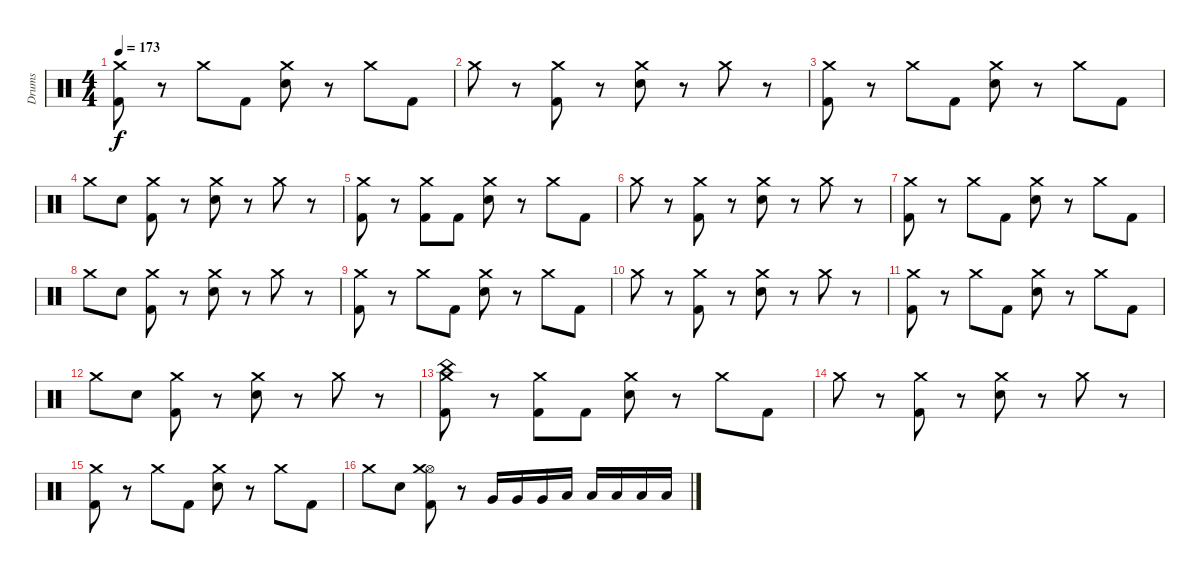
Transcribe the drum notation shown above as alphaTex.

\track ("Drums" "Drums") {instrument percussion}
\staff {score}
\articulation defaults
\ts (4 4)
\tempo 173
\clef neutral
\ks c
("Kick (hit) 2" "Crash medium (hit)").8{dy f} r.8 "Crash medium (hit)".8 "Kick (hit) 2".8 ("Electric Snare (hit)" "Crash medium (hit)").8 r.8 "Crash medium (hit)".8 "Kick (hit) 2".8 |
"Crash medium (hit)".8 r.8 ("Kick (hit) 2" "Crash medium (hit)").8 r.8 ("Electric Snare (hit)" "Crash medium (hit)").8 r.8 "Crash medium (hit)".8 r.8 |
("Kick (hit) 2" "Crash medium (hit)").8 r.8 "Crash medium (hit)".8 "Kick (hit) 2".8 ("Electric Snare (hit)" "Crash medium (hit)").8 r.8 "Crash medium (hit)".8 "Kick (hit) 2".8 |
"Crash medium (hit)".8 "Electric Snare (hit)".8 ("Kick (hit) 2" "Crash medium (hit)").8 r.8 ("Electric Snare (hit)" "Crash medium (hit)").8 r.8 "Crash medium (hit)".8 r.8 |
("Kick (hit) 2" "Crash medium (hit)").8 r.8 ("Kick (hit) 2" "Crash medium (hit)").8 "Kick (hit) 2".8 ("Electric Snare (hit)" "Crash medium (hit)").8 r.8 "Crash medium (hit)".8 "Kick (hit) 2".8 |
"Crash medium (hit)".8 r.8 ("Kick (hit) 2" "Crash medium (hit)").8 r.8 ("Electric Snare (hit)" "Crash medium (hit)").8 r.8 "Crash medium (hit)".8 r.8 |
("Kick (hit) 2" "Crash medium (hit)").8 r.8 "Crash medium (hit)".8 "Kick (hit) 2".8 ("Electric Snare (hit)" "Crash medium (hit)").8 r.8 "Crash medium (hit)".8 "Kick (hit) 2".8 |
"Crash medium (hit)".8 "Electric Snare (hit)".8 ("Kick (hit) 2" "Crash medium (hit)").8 r.8 ("Electric Snare (hit)" "Crash medium (hit)").8 r.8 "Crash medium (hit)".8 r.8 |
("Kick (hit) 2" "Crash medium (hit)").8 r.8 "Crash medium (hit)".8 "Kick (hit) 2".8 ("Electric Snare (hit)" "Crash medium (hit)").8 r.8 "Crash medium (hit)".8 "Kick (hit) 2".8 |
"Crash medium (hit)".8 r.8 ("Kick (hit) 2" "Crash medium (hit)").8 r.8 ("Electric Snare (hit)" "Crash medium (hit)").8 r.8 "Crash medium (hit)".8 r.8 |
("Kick (hit) 2" "Crash medium (hit)").8 r.8 "Crash medium (hit)".8 "Kick (hit) 2".8 ("Electric Snare (hit)" "Crash medium (hit)").8 r.8 "Crash medium (hit)".8 "Kick (hit) 2".8 |
"Crash medium (hit)".8 "Electric Snare (hit)".8 ("Kick (hit) 2" "Crash medium (hit)").8 r.8 ("Electric Snare (hit)" "Crash medium (hit)").8 r.8 "Crash medium (hit)".8 r.8 |
("Kick (hit) 2" "Crash medium (hit)" "China (hit)").8 r.8 ("Kick (hit) 2" "Crash medium (hit)").8 "Kick (hit) 2".8 ("Electric Snare (hit)" "Crash medium (hit)").8 r.8 "Crash medium (hit)".8 "Kick (hit) 2".8 |
"Crash medium (hit)".8 r.8 ("Kick (hit) 2" "Crash medium (hit)").8 r.8 ("Electric Snare (hit)" "Crash medium (hit)").8 r.8 "Crash medium (hit)".8 r.8 |
("Kick (hit) 2" "Crash medium (hit)").8 r.8 "Crash medium (hit)".8 "Kick (hit) 2".8 ("Electric Snare (hit)" "Crash medium (hit)").8 r.8 "Crash medium (hit)".8 "Kick (hit) 2".8 |
"Crash medium (hit)".8 "Electric Snare (hit)".8 ("Hi-Hat (open)" "Kick (hit) 2" "Crash medium (hit)").8 r.8 "Very Low Tom (hit)".16 "Very Low Tom (hit)".16 "Very Low Tom (hit)".16 "Low Floor Tom (hit)".16 "Low Floor Tom (hit)".16 "Low Floor Tom (hit)".16 "Low Floor Tom (hit)".16 "Low Floor Tom (hit)".16
